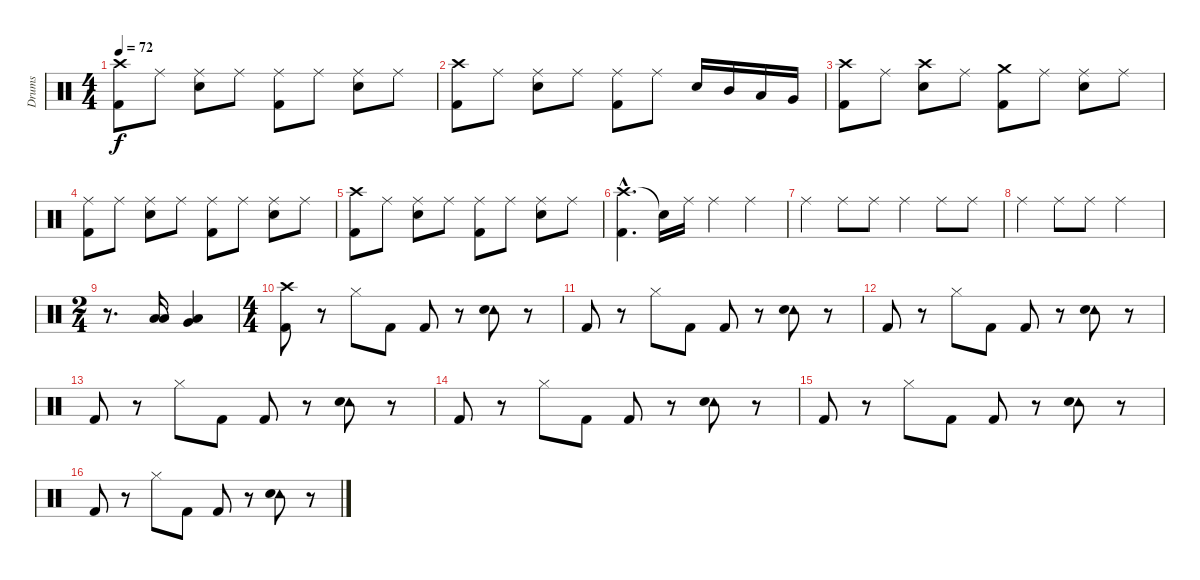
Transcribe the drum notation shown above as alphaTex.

\track ("Drums" "Drums") {instrument percussion}
\staff {score}
\articulation defaults
\ts (4 4)
\tempo 72
\clef neutral
\ks c
("Crash high (hit)" "Kick (hit) 2").8{dy f} "Ride (middle)".8 ("Ride (middle)" "Snare (hit) 2").8 "Ride (middle)".8 ("Ride (middle)" "Kick (hit) 2").8 "Ride (middle)".8 ("Ride (middle)" "Snare (hit) 2").8 "Ride (middle)".8 |
("Crash high (hit)" "Kick (hit) 2").8 "Ride (middle)".8 ("Ride (middle)" "Snare (hit) 2").8 "Ride (middle)".8 ("Ride (middle)" "Kick (hit) 2").8 "Ride (middle)".8 "Snare (hit) 2".16 "Mid Tom (hit)".16 "Low Tom (hit)".16 "Very Low Tom (hit)".16 |
("Crash high (hit)" "Kick (hit) 2").8 "Ride (middle)".8 ("Crash high (hit)" "Snare (hit) 2").8 "Ride (middle)".8 ("Crash medium (hit)" "Kick (hit) 2").8 "Ride (middle)".8 ("Ride (middle)" "Snare (hit) 2").8 "Ride (middle)".8 |
("Ride (middle)" "Kick (hit) 2").8 "Ride (middle)".8 ("Ride (middle)" "Snare (hit) 2").8 "Ride (middle)".8 ("Ride (middle)" "Kick (hit) 2").8 "Ride (middle)".8 ("Ride (middle)" "Snare (hit) 2").8 "Ride (middle)".8 |
("Crash high (hit)" "Kick (hit) 2").8 "Ride (middle)".8 ("Ride (middle)" "Snare (hit) 2").8 "Ride (middle)".8 ("Ride (middle)" "Kick (hit) 2").8 "Ride (middle)".8 ("Ride (middle)" "Snare (hit) 2").8 "Ride (middle)".8 |
("Crash high (hit)"{hac} "Kick (hit) 2"{hac}).4{d} "Snare (hit)"{t}.16 "Ride (middle)".16 "Ride (middle)".4 "Ride (middle)".4 |
"Ride (middle)".4 "Ride (middle)".8 "Ride (middle)".8 "Ride (middle)".4 "Ride (middle)".8 "Ride (middle)".8 |
"Ride (middle)".4 "Ride (middle)".8 "Ride (middle)".8 "Ride (middle)".2 |
\ts (2 4)
r.8{d} ("Low Tom (hit)" "Low Floor Tom (hit)").16 ("Very Low Tom (hit)" "Low Floor Tom (hit)").4 |
\ts (4 4)
("Crash high (hit)" "Kick (hit) 2").8 r.8 "Hi-Hat (closed)".8 "Kick (hit) 2".8 "Kick (hit) 2".8 r.8 ("Tambourine (hit)" "Snare (hit) 2").8 r.8 |
"Kick (hit) 2".8 r.8 "Hi-Hat (closed)".8 "Kick (hit) 2".8 "Kick (hit) 2".8 r.8 ("Tambourine (hit)" "Snare (hit) 2").8 r.8 |
"Kick (hit) 2".8 r.8 "Hi-Hat (closed)".8 "Kick (hit) 2".8 "Kick (hit) 2".8 r.8 ("Tambourine (hit)" "Snare (hit) 2").8 r.8 |
"Kick (hit) 2".8 r.8 "Hi-Hat (closed)".8 "Kick (hit) 2".8 "Kick (hit) 2".8 r.8 ("Tambourine (hit)" "Snare (hit) 2").8 r.8 |
"Kick (hit) 2".8 r.8 "Hi-Hat (closed)".8 "Kick (hit) 2".8 "Kick (hit) 2".8 r.8 ("Tambourine (hit)" "Snare (hit) 2").8 r.8 |
"Kick (hit) 2".8 r.8 "Hi-Hat (closed)".8 "Kick (hit) 2".8 "Kick (hit) 2".8 r.8 ("Tambourine (hit)" "Snare (hit) 2").8 r.8 |
"Kick (hit) 2".8 r.8 "Hi-Hat (closed)".8 "Kick (hit) 2".8 "Kick (hit) 2".8 r.8 ("Tambourine (hit)" "Snare (hit) 2").8 r.8
